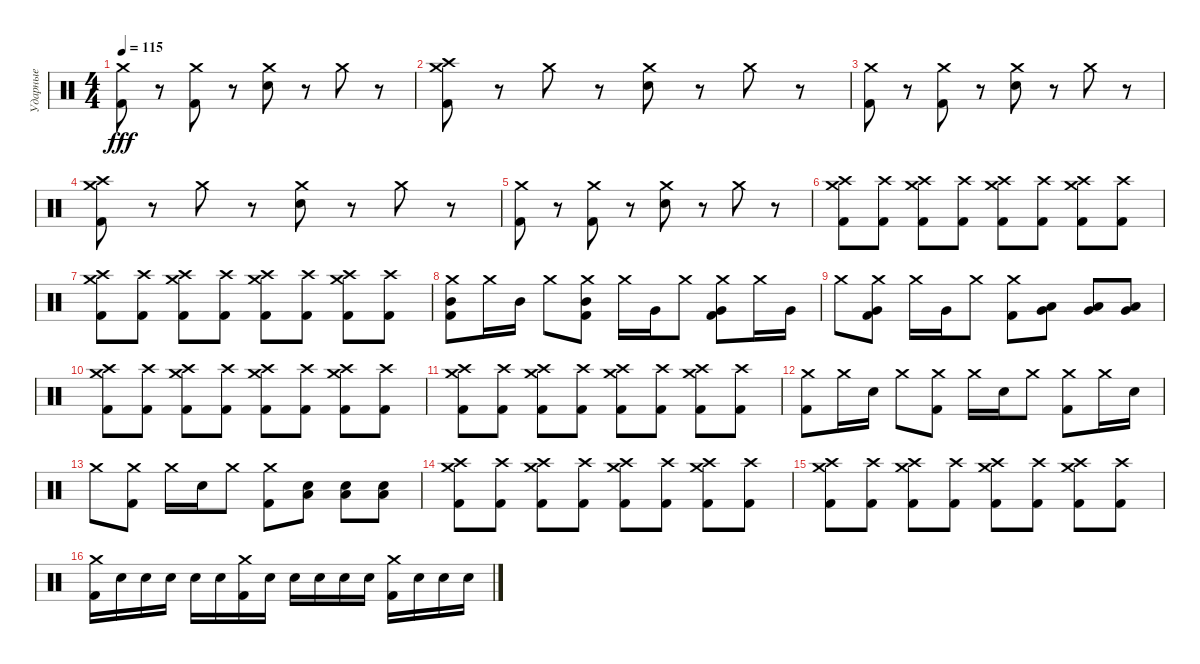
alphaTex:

\track ("Ударные" "Ударные") {instrument percussion}
\staff {score}
\articulation defaults
\ts (4 4)
\tempo 115
\clef neutral
\ks c
("Crash medium (hit)" "Kick (hit) 2").8{dy fff} r.8 ("Crash medium (hit)" "Kick (hit) 2").8 r.8 ("Crash medium (hit)" "Snare (hit) 2").8 r.8 "Crash medium (hit)".8 r.8 |
("Crash high (hit)" "Crash medium (hit)" "Kick (hit) 2").8 r.8 "Crash medium (hit)".8 r.8 ("Crash medium (hit)" "Snare (hit) 2").8 r.8 "Crash medium (hit)".8 r.8 |
("Crash medium (hit)" "Kick (hit) 2").8 r.8 ("Crash medium (hit)" "Kick (hit) 2").8 r.8 ("Crash medium (hit)" "Snare (hit) 2").8 r.8 "Crash medium (hit)".8 r.8 |
("Crash high (hit)" "Crash medium (hit)" "Kick (hit) 2").8 r.8 "Crash medium (hit)".8 r.8 ("Crash medium (hit)" "Snare (hit) 2").8 r.8 "Crash medium (hit)".8 r.8 |
("Crash medium (hit)" "Kick (hit) 2").8 r.8 ("Crash medium (hit)" "Kick (hit) 2").8 r.8 ("Crash medium (hit)" "Snare (hit) 2").8 r.8 "Crash medium (hit)".8 r.8 |
("Crash high (hit)" "Crash medium (hit)" "Kick (hit) 2").8 ("Crash high (hit)" "Kick (hit) 2").8 ("Crash high (hit)" "Crash medium (hit)" "Kick (hit) 2").8 ("Crash high (hit)" "Kick (hit) 2").8 ("Crash high (hit)" "Crash medium (hit)" "Kick (hit) 2").8 ("Crash high (hit)" "Kick (hit) 2").8 ("Crash high (hit)" "Crash medium (hit)" "Kick (hit) 2").8 ("Crash high (hit)" "Kick (hit) 2").8 |
("Crash high (hit)" "Crash medium (hit)" "Kick (hit) 2").8 ("Crash high (hit)" "Kick (hit) 2").8 ("Crash high (hit)" "Crash medium (hit)" "Kick (hit) 2").8 ("Crash high (hit)" "Kick (hit) 2").8 ("Crash high (hit)" "Crash medium (hit)" "Kick (hit) 2").8 ("Crash high (hit)" "Kick (hit) 2").8 ("Crash high (hit)" "Crash medium (hit)" "Kick (hit) 2").8 ("Crash high (hit)" "Kick (hit) 2").8 |
("Crash medium (hit)" "Mid Tom (hit)" "Kick (hit) 2").8 "Crash medium (hit)".16 "Mid Tom (hit)".16 "Crash medium (hit)".8 ("Crash medium (hit)" "Mid Tom (hit)" "Kick (hit) 2").8 "Crash medium (hit)".16 "Very Low Tom (hit)".16 "Crash medium (hit)".8 ("Crash medium (hit)" "Very Low Tom (hit)" "Kick (hit) 2").8 "Crash medium (hit)".16 "Very Low Tom (hit)".16 |
"Crash medium (hit)".8 ("Crash medium (hit)" "Very Low Tom (hit)" "Kick (hit) 2").8 "Crash medium (hit)".16 "Very Low Tom (hit)".16 "Crash medium (hit)".8 ("Crash medium (hit)" "Kick (hit) 2").8 ("Very Low Tom (hit)" "Low Floor Tom (hit)").8 ("Very Low Tom (hit)" "Low Floor Tom (hit)").8 ("Very Low Tom (hit)" "Low Floor Tom (hit)").8 |
("Crash high (hit)" "Crash medium (hit)" "Kick (hit) 2").8 ("Crash high (hit)" "Kick (hit) 2").8 ("Crash high (hit)" "Crash medium (hit)" "Kick (hit) 2").8 ("Crash high (hit)" "Kick (hit) 2").8 ("Crash high (hit)" "Crash medium (hit)" "Kick (hit) 2").8 ("Crash high (hit)" "Kick (hit) 2").8 ("Crash high (hit)" "Crash medium (hit)" "Kick (hit) 2").8 ("Crash high (hit)" "Kick (hit) 2").8 |
("Crash high (hit)" "Crash medium (hit)" "Kick (hit) 2").8 ("Crash high (hit)" "Kick (hit) 2").8 ("Crash high (hit)" "Crash medium (hit)" "Kick (hit) 2").8 ("Crash high (hit)" "Kick (hit) 2").8 ("Crash high (hit)" "Crash medium (hit)" "Kick (hit) 2").8 ("Crash high (hit)" "Kick (hit) 2").8 ("Crash high (hit)" "Crash medium (hit)" "Kick (hit) 2").8 ("Crash high (hit)" "Kick (hit) 2").8 |
("Crash medium (hit)" "Kick (hit) 2").8 "Crash medium (hit)".16 "Snare (hit) 2".16 "Crash medium (hit)".8 ("Crash medium (hit)" "Kick (hit) 2").8 "Crash medium (hit)".16 "Snare (hit) 2".16 "Crash medium (hit)".8 ("Crash medium (hit)" "Kick (hit) 2").8 "Crash medium (hit)".16 "Snare (hit) 2".16 |
"Crash medium (hit)".8 ("Crash medium (hit)" "Kick (hit) 2").8 "Crash medium (hit)".16 "Snare (hit) 2".16 "Crash medium (hit)".8 ("Crash medium (hit)" "Kick (hit) 2").8 ("Snare (hit) 2" "Low Floor Tom (hit)").8 ("Snare (hit) 2" "Low Floor Tom (hit)").8 ("Snare (hit) 2" "Low Floor Tom (hit)").8 |
("Crash high (hit)" "Crash medium (hit)" "Kick (hit) 2").8 ("Crash high (hit)" "Kick (hit) 2").8 ("Crash high (hit)" "Crash medium (hit)" "Kick (hit) 2").8 ("Crash high (hit)" "Kick (hit) 2").8 ("Crash high (hit)" "Crash medium (hit)" "Kick (hit) 2").8 ("Crash high (hit)" "Kick (hit) 2").8 ("Crash high (hit)" "Crash medium (hit)" "Kick (hit) 2").8 ("Crash high (hit)" "Kick (hit) 2").8 |
("Crash high (hit)" "Crash medium (hit)" "Kick (hit) 2").8 ("Crash high (hit)" "Kick (hit) 2").8 ("Crash high (hit)" "Crash medium (hit)" "Kick (hit) 2").8 ("Crash high (hit)" "Kick (hit) 2").8 ("Crash high (hit)" "Crash medium (hit)" "Kick (hit) 2").8 ("Crash high (hit)" "Kick (hit) 2").8 ("Crash high (hit)" "Crash medium (hit)" "Kick (hit) 2").8 ("Crash high (hit)" "Kick (hit) 2").8 |
("Crash medium (hit)" "Kick (hit) 2").16 "Snare (hit) 2".16 "Snare (hit) 2".16 "Snare (hit) 2".16 "Snare (hit) 2".16 "Snare (hit) 2".16 ("Crash medium (hit)" "Kick (hit) 2").16 "Snare (hit) 2".16 "Snare (hit) 2".16 "Snare (hit) 2".16 "Snare (hit) 2".16 "Snare (hit) 2".16 ("Crash medium (hit)" "Kick (hit) 2").16 "Snare (hit) 2".16 "Snare (hit) 2".16 "Snare (hit) 2".16
